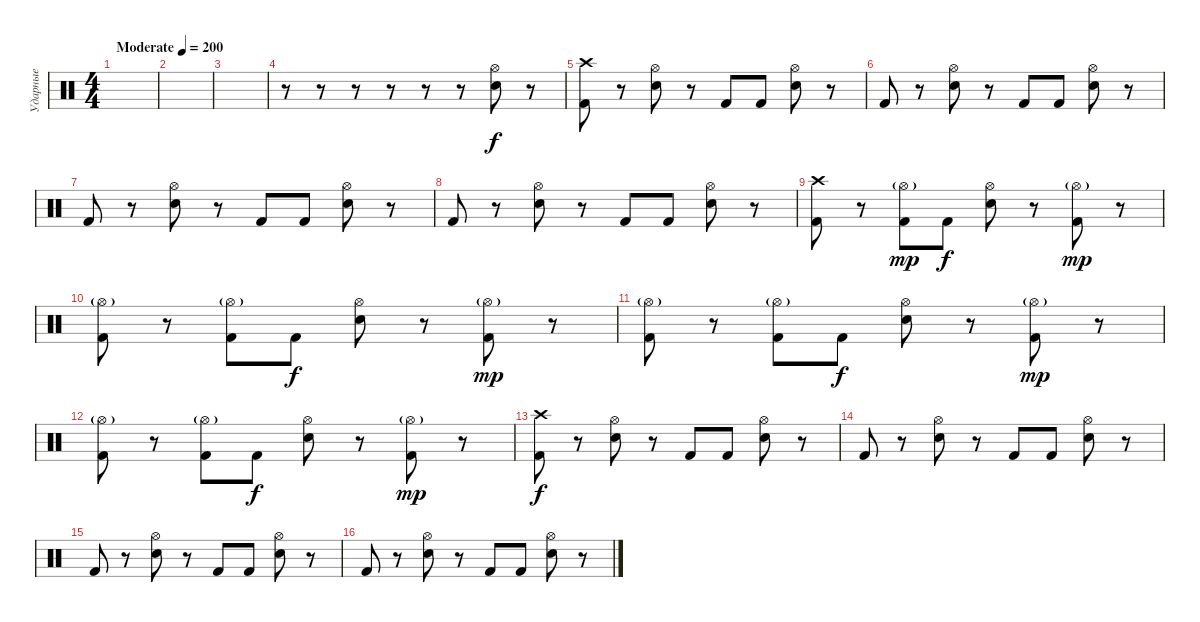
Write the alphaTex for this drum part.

\track ("Ударные" "Ударные") {instrument percussion}
\staff {score}
\articulation defaults
\ts (4 4)
\tempo (200 "Moderate")
\clef neutral
\ks c
|
|
|
r.8 r.8 r.8 r.8 r.8 r.8 ("Hi-Hat (open)" "Electric Snare (hit)").8 r.8 |
("Crash high (hit)" "Kick (hit) 2").8 r.8 ("Hi-Hat (open)" "Electric Snare (hit)").8 r.8 "Kick (hit) 2".8 "Kick (hit) 2".8 ("Hi-Hat (open)" "Electric Snare (hit)").8 r.8 |
"Kick (hit) 2".8 r.8 ("Hi-Hat (open)" "Electric Snare (hit)").8 r.8 "Kick (hit) 2".8 "Kick (hit) 2".8 ("Hi-Hat (open)" "Electric Snare (hit)").8 r.8 |
"Kick (hit) 2".8 r.8 ("Hi-Hat (open)" "Electric Snare (hit)").8 r.8 "Kick (hit) 2".8 "Kick (hit) 2".8 ("Hi-Hat (open)" "Electric Snare (hit)").8 r.8 |
"Kick (hit) 2".8 r.8 ("Hi-Hat (open)" "Electric Snare (hit)").8 r.8 "Kick (hit) 2".8 "Kick (hit) 2".8 ("Hi-Hat (open)" "Electric Snare (hit)").8 r.8 |
("Crash high (hit)" "Kick (hit) 2").8 r.8 ("Hi-Hat (open)"{g} "Kick (hit) 2").8{dy mp} "Kick (hit) 2".8{dy f} ("Hi-Hat (open)" "Electric Snare (hit)").8 r.8 ("Hi-Hat (open)"{g} "Kick (hit) 2").8{dy mp} r.8 |
("Hi-Hat (open)"{g} "Kick (hit) 2").8 r.8 ("Hi-Hat (open)"{g} "Kick (hit) 2").8 "Kick (hit) 2".8{dy f} ("Hi-Hat (open)" "Electric Snare (hit)").8 r.8 ("Hi-Hat (open)"{g} "Kick (hit) 2").8{dy mp} r.8 |
("Hi-Hat (open)"{g} "Kick (hit) 2").8 r.8 ("Hi-Hat (open)"{g} "Kick (hit) 2").8 "Kick (hit) 2".8{dy f} ("Hi-Hat (open)" "Electric Snare (hit)").8 r.8 ("Hi-Hat (open)"{g} "Kick (hit) 2").8{dy mp} r.8 |
("Hi-Hat (open)"{g} "Kick (hit) 2").8 r.8 ("Hi-Hat (open)"{g} "Kick (hit) 2").8 "Kick (hit) 2".8{dy f} ("Hi-Hat (open)" "Electric Snare (hit)").8 r.8 ("Hi-Hat (open)"{g} "Kick (hit) 2").8{dy mp} r.8 |
("Crash high (hit)" "Kick (hit) 2").8{dy f} r.8 ("Hi-Hat (open)" "Electric Snare (hit)").8 r.8 "Kick (hit) 2".8 "Kick (hit) 2".8 ("Hi-Hat (open)" "Electric Snare (hit)").8 r.8 |
"Kick (hit) 2".8 r.8 ("Hi-Hat (open)" "Electric Snare (hit)").8 r.8 "Kick (hit) 2".8 "Kick (hit) 2".8 ("Hi-Hat (open)" "Electric Snare (hit)").8 r.8 |
"Kick (hit) 2".8 r.8 ("Hi-Hat (open)" "Electric Snare (hit)").8 r.8 "Kick (hit) 2".8 "Kick (hit) 2".8 ("Hi-Hat (open)" "Electric Snare (hit)").8 r.8 |
"Kick (hit) 2".8 r.8 ("Hi-Hat (open)" "Electric Snare (hit)").8 r.8 "Kick (hit) 2".8 "Kick (hit) 2".8 ("Hi-Hat (open)" "Electric Snare (hit)").8 r.8
